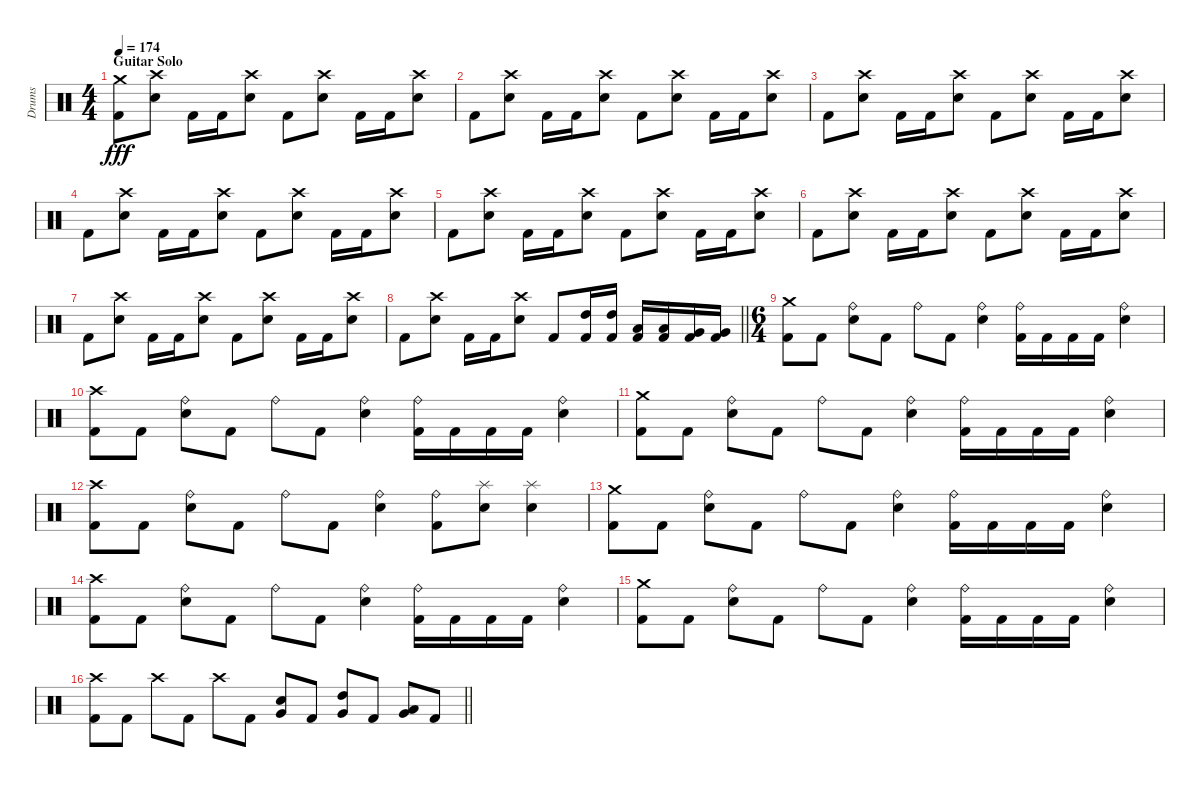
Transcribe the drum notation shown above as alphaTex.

\track ("Drums" "Drums") {instrument percussion}
\staff {score}
\articulation defaults
\ts (4 4)
\section ("" "Guitar Solo")
\tempo 174
\clef neutral
\ks c
("Crash medium (hit)" "Kick (hit) 2").8{dy fff} ("Crash high (hit)" "Snare (hit) 2").8 "Kick (hit) 2".16 "Kick (hit) 2".16 ("Crash high (hit)" "Snare (hit) 2").8 "Kick (hit) 2".8 ("Crash high (hit)" "Snare (hit) 2").8 "Kick (hit) 2".16 "Kick (hit) 2".16 ("Crash high (hit)" "Snare (hit) 2").8 |
"Kick (hit) 2".8 ("Crash high (hit)" "Snare (hit) 2").8 "Kick (hit) 2".16 "Kick (hit) 2".16 ("Crash high (hit)" "Snare (hit) 2").8 "Kick (hit) 2".8 ("Crash high (hit)" "Snare (hit) 2").8 "Kick (hit) 2".16 "Kick (hit) 2".16 ("Crash high (hit)" "Snare (hit) 2").8 |
"Kick (hit) 2".8 ("Crash high (hit)" "Snare (hit) 2").8 "Kick (hit) 2".16 "Kick (hit) 2".16 ("Crash high (hit)" "Snare (hit) 2").8 "Kick (hit) 2".8 ("Crash high (hit)" "Snare (hit) 2").8 "Kick (hit) 2".16 "Kick (hit) 2".16 ("Crash high (hit)" "Snare (hit) 2").8 |
"Kick (hit) 2".8 ("Crash high (hit)" "Snare (hit) 2").8 "Kick (hit) 2".16 "Kick (hit) 2".16 ("Crash high (hit)" "Snare (hit) 2").8 "Kick (hit) 2".8 ("Crash high (hit)" "Snare (hit) 2").8 "Kick (hit) 2".16 "Kick (hit) 2".16 ("Crash high (hit)" "Snare (hit) 2").8 |
"Kick (hit) 2".8 ("Crash high (hit)" "Snare (hit) 2").8 "Kick (hit) 2".16 "Kick (hit) 2".16 ("Crash high (hit)" "Snare (hit) 2").8 "Kick (hit) 2".8 ("Crash high (hit)" "Snare (hit) 2").8 "Kick (hit) 2".16 "Kick (hit) 2".16 ("Crash high (hit)" "Snare (hit) 2").8 |
"Kick (hit) 2".8 ("Crash high (hit)" "Snare (hit) 2").8 "Kick (hit) 2".16 "Kick (hit) 2".16 ("Crash high (hit)" "Snare (hit) 2").8 "Kick (hit) 2".8 ("Crash high (hit)" "Snare (hit) 2").8 "Kick (hit) 2".16 "Kick (hit) 2".16 ("Crash high (hit)" "Snare (hit) 2").8 |
"Kick (hit) 2".8 ("Crash high (hit)" "Snare (hit) 2").8 "Kick (hit) 2".16 "Kick (hit) 2".16 ("Crash high (hit)" "Snare (hit) 2").8 "Kick (hit) 2".8 ("Crash high (hit)" "Snare (hit) 2").8 "Kick (hit) 2".16 "Kick (hit) 2".16 ("Crash high (hit)" "Snare (hit) 2").8 |
\barLineRight lightlight "Kick (hit) 2".8
("Crash high (hit)" "Snare (hit) 2").8 "Kick (hit) 2".16 "Kick (hit) 2".16 ("Crash high (hit)" "Snare (hit) 2").8 "Kick (hit) 2".8 ("High Tom (hit)" "Kick (hit) 2").16 ("High Tom (hit)" "Kick (hit) 2").16 ("Low Tom (hit)" "Kick (hit) 2").16 ("Low Tom (hit)" "Kick (hit) 2").16 ("Very Low Tom (hit)" "Kick (hit) 2").16 ("Very Low Tom (hit)" "Kick (hit) 2").16 |
\ts (6 4)
("Crash medium (hit)" "Kick (hit) 2").8 "Kick (hit) 2".8 ("Ride (bell)" "Snare (hit) 2").8 "Kick (hit) 2".8 "Ride (bell)".8 "Kick (hit) 2".8 ("Ride (bell)" "Snare (hit) 2").4 ("Ride (bell)" "Kick (hit) 2").16 "Kick (hit) 2".16 "Kick (hit) 2".16 "Kick (hit) 2".16 ("Ride (bell)" "Snare (hit) 2").4 |
("Crash high (hit)" "Kick (hit) 2").8 "Kick (hit) 2".8 ("Ride (bell)" "Snare (hit) 2").8 "Kick (hit) 2".8 "Ride (bell)".8 "Kick (hit) 2".8 ("Ride (bell)" "Snare (hit) 2").4 ("Ride (bell)" "Kick (hit) 2").16 "Kick (hit) 2".16 "Kick (hit) 2".16 "Kick (hit) 2".16 ("Ride (bell)" "Snare (hit) 2").4 |
("Crash medium (hit)" "Kick (hit) 2").8 "Kick (hit) 2".8 ("Ride (bell)" "Snare (hit) 2").8 "Kick (hit) 2".8 "Ride (bell)".8 "Kick (hit) 2".8 ("Ride (bell)" "Snare (hit) 2").4 ("Ride (bell)" "Kick (hit) 2").16 "Kick (hit) 2".16 "Kick (hit) 2".16 "Kick (hit) 2".16 ("Ride (bell)" "Snare (hit) 2").4 |
("Crash high (hit)" "Kick (hit) 2").8 "Kick (hit) 2".8 ("Ride (bell)" "Snare (hit) 2").8 "Kick (hit) 2".8 "Ride (bell)".8 "Kick (hit) 2".8 ("Ride (bell)" "Snare (hit) 2").4 ("Ride (bell)" "Kick (hit) 2").8 ("Splash (hit)" "Snare (hit) 2").8 ("Splash (hit)" "Snare (hit) 2").4 |
("Crash medium (hit)" "Kick (hit) 2").8 "Kick (hit) 2".8 ("Ride (bell)" "Snare (hit) 2").8 "Kick (hit) 2".8 "Ride (bell)".8 "Kick (hit) 2".8 ("Ride (bell)" "Snare (hit) 2").4 ("Ride (bell)" "Kick (hit) 2").16 "Kick (hit) 2".16 "Kick (hit) 2".16 "Kick (hit) 2".16 ("Ride (bell)" "Snare (hit) 2").4 |
("Crash high (hit)" "Kick (hit) 2").8 "Kick (hit) 2".8 ("Ride (bell)" "Snare (hit) 2").8 "Kick (hit) 2".8 "Ride (bell)".8 "Kick (hit) 2".8 ("Ride (bell)" "Snare (hit) 2").4 ("Ride (bell)" "Kick (hit) 2").16 "Kick (hit) 2".16 "Kick (hit) 2".16 "Kick (hit) 2".16 ("Ride (bell)" "Snare (hit) 2").4 |
("Crash medium (hit)" "Kick (hit) 2").8 "Kick (hit) 2".8 ("Ride (bell)" "Snare (hit) 2").8 "Kick (hit) 2".8 "Ride (bell)".8 "Kick (hit) 2".8 ("Ride (bell)" "Snare (hit) 2").4 ("Ride (bell)" "Kick (hit) 2").16 "Kick (hit) 2".16 "Kick (hit) 2".16 "Kick (hit) 2".16 ("Ride (bell)" "Snare (hit) 2").4 |
\barLineRight lightlight
("Crash high (hit)" "Kick (hit) 2").8 "Kick (hit) 2".8 "Crash high (hit)".8 "Kick (hit) 2".8 "Crash high (hit)".8 "Kick (hit) 2".8 ("Snare (hit) 2" "Very Low Tom (hit)").8 "Kick (hit) 2".8 ("High Tom (hit)" "Very Low Tom (hit)").8 "Kick (hit) 2".8 ("Low Tom (hit)" "Very Low Tom (hit)").8 "Kick (hit) 2".8
